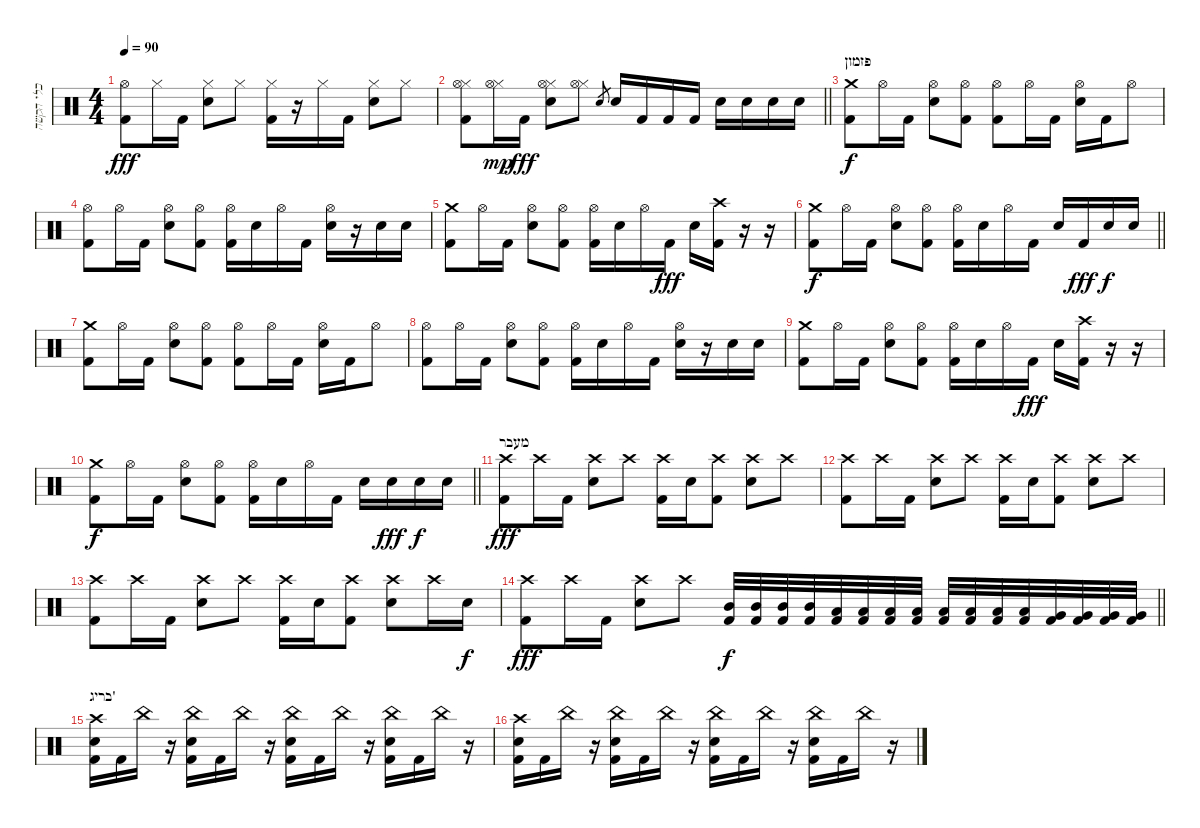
\track ("כלי הקשה" "כלי הקשה") {instrument percussion}
\staff {score}
\articulation defaults
\ts (4 4)
\tempo 90
\clef neutral
\ks c
("Hi-Hat (open)" "Kick (hit) 2").8{dy fff} "Hi-Hat (closed)".16 "Kick (hit) 2".16 ("Hi-Hat (closed)" "Electric Snare (hit)").8 "Hi-Hat (closed)".8 ("Hi-Hat (closed)" "Kick (hit) 2").16 r.16 "Hi-Hat (closed)".16 "Kick (hit) 2".16 ("Hi-Hat (closed)" "Electric Snare (hit)").8 "Hi-Hat (closed)".8 |
\barLineRight lightlight
("Hi-Hat (closed)" "Hi-Hat (open)" "Kick (hit) 2").8 ("Hi-Hat (closed)" "Hi-Hat (open)").16{dy mp} "Kick (hit) 2".16{dy fff} ("Hi-Hat (closed)" "Hi-Hat (open)" "Electric Snare (hit)").8 ("Hi-Hat (closed)" "Hi-Hat (open)").8 "Electric Snare (hit)".8{gr} "Electric Snare (hit)".16 "Kick (hit) 2".16 "Kick (hit) 2".16 "Kick (hit) 2".16 "Electric Snare (hit)".16 "Electric Snare (hit)".16 "Electric Snare (hit)".16 "Electric Snare (hit)".16 |
\section ("" "פזמון")
("Crash medium (hit)" "Kick (hit) 2").8{dy f} "Hi-Hat (open)".16 "Kick (hit) 2".16 ("Hi-Hat (open)" "Electric Snare (hit)").8 ("Hi-Hat (open)" "Kick (hit) 2").8 ("Hi-Hat (open)" "Kick (hit) 2").8 "Hi-Hat (open)".16 "Kick (hit) 2".16 ("Hi-Hat (open)" "Electric Snare (hit)").16 "Kick (hit) 2".16 "Hi-Hat (open)".8 |
("Hi-Hat (open)" "Kick (hit) 2").8 "Hi-Hat (open)".16 "Kick (hit) 2".16 ("Hi-Hat (open)" "Electric Snare (hit)").8 ("Hi-Hat (open)" "Kick (hit) 2").8 ("Hi-Hat (open)" "Kick (hit) 2").16 "Electric Snare (hit)".16 "Hi-Hat (open)".16 "Kick (hit) 2".16 ("Hi-Hat (open)" "Electric Snare (hit)").16 r.16 "Electric Snare (hit)".16 "Electric Snare (hit)".16 |
("Crash medium (hit)" "Kick (hit) 2").8 "Hi-Hat (open)".16 "Kick (hit) 2".16 ("Hi-Hat (open)" "Electric Snare (hit)").8 ("Hi-Hat (open)" "Kick (hit) 2").8 ("Hi-Hat (open)" "Kick (hit) 2").16 "Electric Snare (hit)".16 "Hi-Hat (open)".16 "Kick (hit) 2".16{dy fff} "Electric Snare (hit)".16 ("Crash high (hit)" "Kick (hit) 2").16 r.16 r.16 |
\barLineRight lightlight
("Crash medium (hit)" "Kick (hit) 2").8{dy f} "Hi-Hat (open)".16 "Kick (hit) 2".16 ("Hi-Hat (open)" "Electric Snare (hit)").8 ("Hi-Hat (open)" "Kick (hit) 2").8 ("Hi-Hat (open)" "Kick (hit) 2").16 "Electric Snare (hit)".16 "Hi-Hat (open)".16 "Kick (hit) 2".16 "Electric Snare (hit)".16 "Kick (hit) 2".16{dy fff} "Electric Snare (hit)".16{dy f} "Electric Snare (hit)".16 |
("Crash medium (hit)" "Kick (hit) 2").8 "Hi-Hat (open)".16 "Kick (hit) 2".16 ("Hi-Hat (open)" "Electric Snare (hit)").8 ("Hi-Hat (open)" "Kick (hit) 2").8 ("Hi-Hat (open)" "Kick (hit) 2").8 "Hi-Hat (open)".16 "Kick (hit) 2".16 ("Hi-Hat (open)" "Electric Snare (hit)").16 "Kick (hit) 2".16 "Hi-Hat (open)".8 |
("Hi-Hat (open)" "Kick (hit) 2").8 "Hi-Hat (open)".16 "Kick (hit) 2".16 ("Hi-Hat (open)" "Electric Snare (hit)").8 ("Hi-Hat (open)" "Kick (hit) 2").8 ("Hi-Hat (open)" "Kick (hit) 2").16 "Electric Snare (hit)".16 "Hi-Hat (open)".16 "Kick (hit) 2".16 ("Hi-Hat (open)" "Electric Snare (hit)").16 r.16 "Electric Snare (hit)".16 "Electric Snare (hit)".16 |
("Crash medium (hit)" "Kick (hit) 2").8 "Hi-Hat (open)".16 "Kick (hit) 2".16 ("Hi-Hat (open)" "Electric Snare (hit)").8 ("Hi-Hat (open)" "Kick (hit) 2").8 ("Hi-Hat (open)" "Kick (hit) 2").16 "Electric Snare (hit)".16 "Hi-Hat (open)".16 "Kick (hit) 2".16{dy fff} "Electric Snare (hit)".16 ("Crash high (hit)" "Kick (hit) 2").16 r.16 r.16 |
\barLineRight lightlight
("Crash medium (hit)" "Kick (hit) 2").8{dy f} "Hi-Hat (open)".16 "Kick (hit) 2".16 ("Hi-Hat (open)" "Electric Snare (hit)").8 ("Hi-Hat (open)" "Kick (hit) 2").8 ("Hi-Hat (open)" "Kick (hit) 2").16 "Electric Snare (hit)".16 "Hi-Hat (open)".16 "Kick (hit) 2".16 "Electric Snare (hit)".16 "Electric Snare (hit)".16{dy fff} "Electric Snare (hit)".16{dy f} "Electric Snare (hit)".16 |
\section ("" "מעבר")
("Kick (hit) 2" "Crash high (hit)").8{dy fff} "Crash high (hit)".16 "Kick (hit) 2".16 ("Electric Snare (hit)" "Crash high (hit)").8 "Crash high (hit)".8 ("Kick (hit) 2" "Crash high (hit)").16 "Electric Snare (hit)".16 ("Kick (hit) 2" "Crash high (hit)").8 ("Electric Snare (hit)" "Crash high (hit)").8 "Crash high (hit)".8 |
("Kick (hit) 2" "Crash high (hit)").8 "Crash high (hit)".16 "Kick (hit) 2".16 ("Electric Snare (hit)" "Crash high (hit)").8 "Crash high (hit)".8 ("Kick (hit) 2" "Crash high (hit)").16 "Electric Snare (hit)".16 ("Kick (hit) 2" "Crash high (hit)").8 ("Electric Snare (hit)" "Crash high (hit)").8 "Crash high (hit)".8 |
("Kick (hit) 2" "Crash high (hit)").8 "Crash high (hit)".16 "Kick (hit) 2".16 ("Electric Snare (hit)" "Crash high (hit)").8 "Crash high (hit)".8 ("Kick (hit) 2" "Crash high (hit)").16 "Electric Snare (hit)".16 ("Kick (hit) 2" "Crash high (hit)").8 ("Electric Snare (hit)" "Crash high (hit)").8 "Crash high (hit)".16 "Electric Snare (hit)".16{dy f} |
\barLineRight lightlight
("Kick (hit) 2" "Crash high (hit)").8{dy fff} "Crash high (hit)".16 "Kick (hit) 2".16 ("Electric Snare (hit)" "Crash high (hit)").8 "Crash high (hit)".8 ("Mid Tom (hit)" "Kick (hit) 2").32{dy f} ("Mid Tom (hit)" "Kick (hit) 2").32 ("Mid Tom (hit)" "Kick (hit) 2").32 ("Mid Tom (hit)" "Kick (hit) 2").32 ("Low Tom (hit)" "Kick (hit) 2").32 ("Low Tom (hit)" "Kick (hit) 2").32 ("Low Tom (hit)" "Kick (hit) 2").32 ("Low Tom (hit)" "Kick (hit) 2").32 ("Low Floor Tom (hit)" "Kick (hit) 2").32 ("Low Floor Tom (hit)" "Kick (hit) 2").32 ("Low Floor Tom (hit)" "Kick (hit) 2").32 ("Low Floor Tom (hit)" "Kick (hit) 2").32 ("Very Low Tom (hit)" "Kick (hit) 2").32 ("Very Low Tom (hit)" "Kick (hit) 2").32 ("Very Low Tom (hit)" "Kick (hit) 2").32 ("Very Low Tom (hit)" "Kick (hit) 2").32 |
\section ("" "בריג'")
("Kick (hit) 2" "Crash high (hit)" "Electric Snare (hit)").16 "Kick (hit) 2".16 "China (hit)".16 r.16 ("Kick (hit) 2" "China (hit)" "Electric Snare (hit)").16 "Kick (hit) 2".16 "China (hit)".16 r.16 ("Kick (hit) 2" "China (hit)" "Electric Snare (hit)").16 "Kick (hit) 2".16 "China (hit)".16 r.16 ("Kick (hit) 2" "China (hit)" "Electric Snare (hit)").16 "Kick (hit) 2".16 "China (hit)".16 r.16 |
("Kick (hit) 2" "Crash high (hit)" "Electric Snare (hit)").16 "Kick (hit) 2".16 "China (hit)".16 r.16 ("Kick (hit) 2" "China (hit)" "Electric Snare (hit)").16 "Kick (hit) 2".16 "China (hit)".16 r.16 ("Kick (hit) 2" "China (hit)" "Electric Snare (hit)").16 "Kick (hit) 2".16 "China (hit)".16 r.16 ("Kick (hit) 2" "China (hit)" "Electric Snare (hit)").16 "Kick (hit) 2".16 "China (hit)".16 r.16
